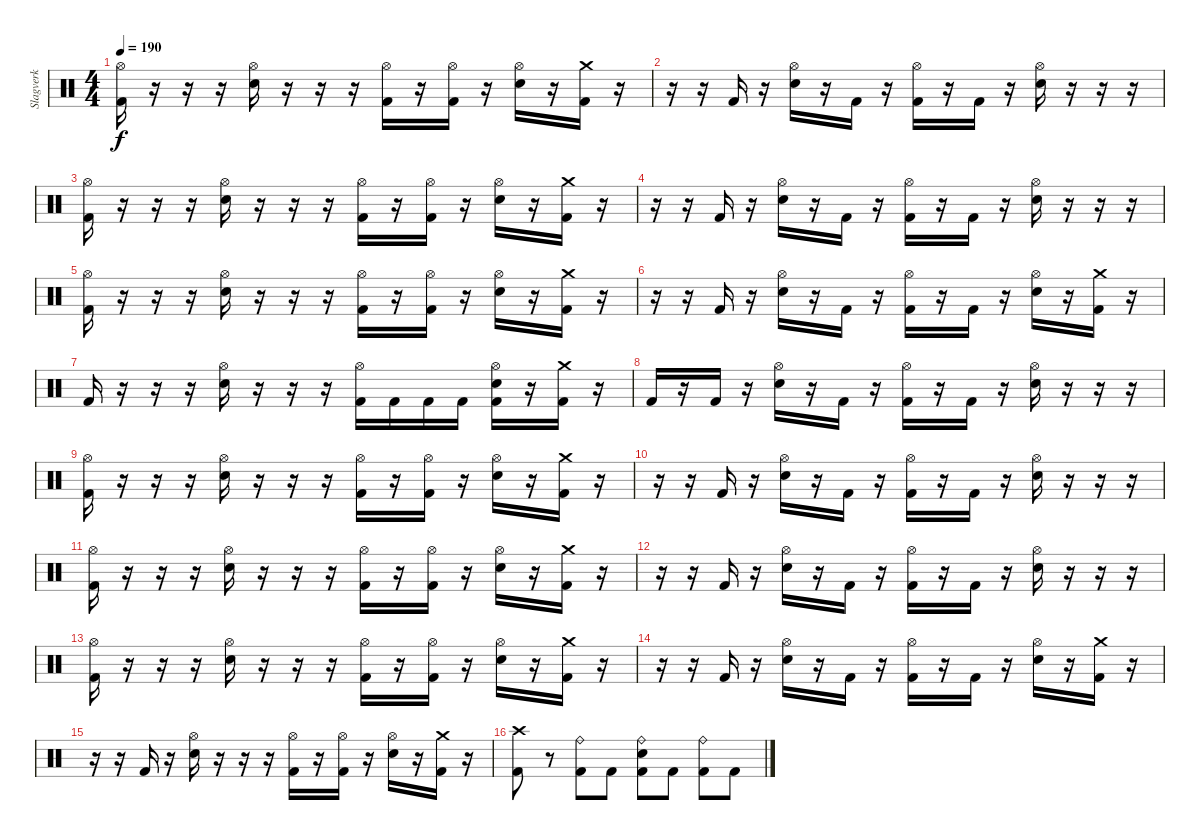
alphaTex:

\track ("Slagverk" "Slagverk") {instrument percussion}
\staff {score}
\articulation defaults
\ts (4 4)
\tempo 190
\clef neutral
\ks c
("Hi-Hat (open)" "Kick (hit) 2").16{dy f} r.16 r.16 r.16 ("Electric Snare (hit)" "Hi-Hat (open)").16 r.16 r.16 r.16 ("Hi-Hat (open)" "Kick (hit) 2").16 r.16 ("Hi-Hat (open)" "Kick (hit) 2").16 r.16 ("Electric Snare (hit)" "Hi-Hat (open)").16 r.16 ("Crash medium (hit)" "Kick (hit) 2").16 r.16 |
r.16 r.16 "Kick (hit) 2".16 r.16 ("Electric Snare (hit)" "Hi-Hat (open)").16 r.16 "Kick (hit) 2".16 r.16 ("Hi-Hat (open)" "Kick (hit) 2").16 r.16 "Kick (hit) 2".16 r.16 ("Electric Snare (hit)" "Hi-Hat (open)").16 r.16 r.16 r.16 |
("Hi-Hat (open)" "Kick (hit) 2").16 r.16 r.16 r.16 ("Electric Snare (hit)" "Hi-Hat (open)").16 r.16 r.16 r.16 ("Hi-Hat (open)" "Kick (hit) 2").16 r.16 ("Hi-Hat (open)" "Kick (hit) 2").16 r.16 ("Electric Snare (hit)" "Hi-Hat (open)").16 r.16 ("Crash medium (hit)" "Kick (hit) 2").16 r.16 |
r.16 r.16 "Kick (hit) 2".16 r.16 ("Electric Snare (hit)" "Hi-Hat (open)").16 r.16 "Kick (hit) 2".16 r.16 ("Hi-Hat (open)" "Kick (hit) 2").16 r.16 "Kick (hit) 2".16 r.16 ("Electric Snare (hit)" "Hi-Hat (open)").16 r.16 r.16 r.16 |
("Hi-Hat (open)" "Kick (hit) 2").16 r.16 r.16 r.16 ("Electric Snare (hit)" "Hi-Hat (open)").16 r.16 r.16 r.16 ("Hi-Hat (open)" "Kick (hit) 2").16 r.16 ("Hi-Hat (open)" "Kick (hit) 2").16 r.16 ("Electric Snare (hit)" "Hi-Hat (open)").16 r.16 ("Crash medium (hit)" "Kick (hit) 2").16 r.16 |
r.16 r.16 "Kick (hit) 2".16 r.16 ("Electric Snare (hit)" "Hi-Hat (open)").16 r.16 "Kick (hit) 2".16 r.16 ("Hi-Hat (open)" "Kick (hit) 2").16 r.16 "Kick (hit) 2".16 r.16 ("Electric Snare (hit)" "Hi-Hat (open)").16 r.16 ("Crash medium (hit)" "Kick (hit) 2").16 r.16 |
"Kick (hit) 2".16 r.16 r.16 r.16 ("Electric Snare (hit)" "Hi-Hat (open)").16 r.16 r.16 r.16 ("Hi-Hat (open)" "Kick (hit) 2").16 "Kick (hit) 2".16 "Kick (hit) 2".16 "Kick (hit) 2".16 ("Electric Snare (hit)" "Hi-Hat (open)" "Kick (hit) 2").16 r.16 ("Crash medium (hit)" "Kick (hit) 2").16 r.16 |
"Kick (hit) 2".16 r.16 "Kick (hit) 2".16 r.16 ("Electric Snare (hit)" "Hi-Hat (open)").16 r.16 "Kick (hit) 2".16 r.16 ("Hi-Hat (open)" "Kick (hit) 2").16 r.16 "Kick (hit) 2".16 r.16 ("Electric Snare (hit)" "Hi-Hat (open)").16 r.16 r.16 r.16 |
("Hi-Hat (open)" "Kick (hit) 2").16 r.16 r.16 r.16 ("Electric Snare (hit)" "Hi-Hat (open)").16 r.16 r.16 r.16 ("Hi-Hat (open)" "Kick (hit) 2").16 r.16 ("Hi-Hat (open)" "Kick (hit) 2").16 r.16 ("Electric Snare (hit)" "Hi-Hat (open)").16 r.16 ("Crash medium (hit)" "Kick (hit) 2").16 r.16 |
r.16 r.16 "Kick (hit) 2".16 r.16 ("Electric Snare (hit)" "Hi-Hat (open)").16 r.16 "Kick (hit) 2".16 r.16 ("Hi-Hat (open)" "Kick (hit) 2").16 r.16 "Kick (hit) 2".16 r.16 ("Electric Snare (hit)" "Hi-Hat (open)").16 r.16 r.16 r.16 |
("Hi-Hat (open)" "Kick (hit) 2").16 r.16 r.16 r.16 ("Electric Snare (hit)" "Hi-Hat (open)").16 r.16 r.16 r.16 ("Hi-Hat (open)" "Kick (hit) 2").16 r.16 ("Hi-Hat (open)" "Kick (hit) 2").16 r.16 ("Electric Snare (hit)" "Hi-Hat (open)").16 r.16 ("Crash medium (hit)" "Kick (hit) 2").16 r.16 |
r.16 r.16 "Kick (hit) 2".16 r.16 ("Electric Snare (hit)" "Hi-Hat (open)").16 r.16 "Kick (hit) 2".16 r.16 ("Hi-Hat (open)" "Kick (hit) 2").16 r.16 "Kick (hit) 2".16 r.16 ("Electric Snare (hit)" "Hi-Hat (open)").16 r.16 r.16 r.16 |
("Hi-Hat (open)" "Kick (hit) 2").16 r.16 r.16 r.16 ("Electric Snare (hit)" "Hi-Hat (open)").16 r.16 r.16 r.16 ("Hi-Hat (open)" "Kick (hit) 2").16 r.16 ("Hi-Hat (open)" "Kick (hit) 2").16 r.16 ("Electric Snare (hit)" "Hi-Hat (open)").16 r.16 ("Crash medium (hit)" "Kick (hit) 2").16 r.16 |
r.16 r.16 "Kick (hit) 2".16 r.16 ("Electric Snare (hit)" "Hi-Hat (open)").16 r.16 "Kick (hit) 2".16 r.16 ("Hi-Hat (open)" "Kick (hit) 2").16 r.16 "Kick (hit) 2".16 r.16 ("Electric Snare (hit)" "Hi-Hat (open)").16 r.16 ("Crash medium (hit)" "Kick (hit) 2").16 r.16 |
r.16 r.16 "Kick (hit) 2".16 r.16 ("Electric Snare (hit)" "Hi-Hat (open)").16 r.16 r.16 r.16 ("Hi-Hat (open)" "Kick (hit) 2").16 r.16 ("Hi-Hat (open)" "Kick (hit) 2").16 r.16 ("Electric Snare (hit)" "Hi-Hat (open)").16 r.16 ("Crash medium (hit)" "Kick (hit) 2").16 r.16 |
("Crash high (hit)" "Kick (hit) 2").8 r.8 ("Ride (bell)" "Kick (hit) 2").8 "Kick (hit) 2".8 ("Ride (bell)" "Electric Snare (hit)" "Kick (hit) 2").8 "Kick (hit) 2".8 ("Ride (bell)" "Kick (hit) 2").8 "Kick (hit) 2".8
